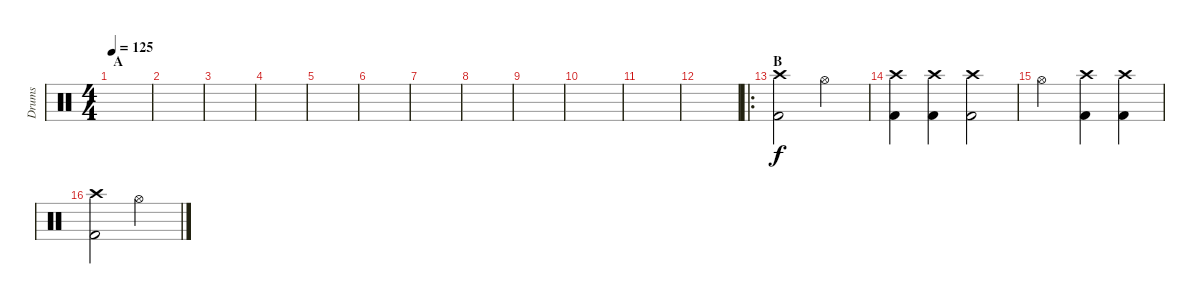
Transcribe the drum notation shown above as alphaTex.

\track ("Drums" "Drums") {instrument percussion}
\staff {score}
\articulation defaults
\ts (4 4)
\section ("" "A")
\tempo 125
\clef neutral
\ks c
|
|
|
|
|
|
|
|
|
|
|
|
\ro
\section ("" "B")
("Kick (hit) 2" "Crash high (hit)").2 "Hi-Hat (open)".2 |
("Crash high (hit)" "Kick (hit) 2").4 ("Crash high (hit)" "Kick (hit) 2").4 ("Crash high (hit)" "Kick (hit) 2").2 |
"Hi-Hat (open)".2 ("Crash high (hit)" "Kick (hit) 2").4 ("Crash high (hit)" "Kick (hit) 2").4 |
("Kick (hit) 2" "Crash high (hit)").2 "Hi-Hat (open)".2
